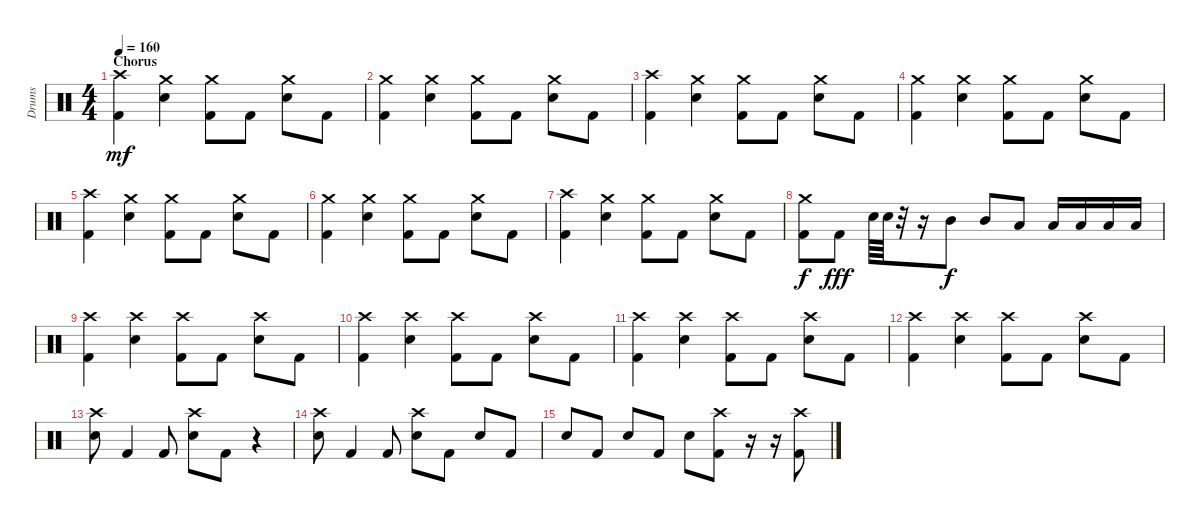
\track ("Drums" "Drums") {instrument percussion}
\staff {score}
\articulation defaults
\ts (4 4)
\section ("" "Chorus")
\tempo 160
\clef neutral
\ks c
("Crash high (hit)" "Kick (hit) 2").4{dy mf} ("Crash medium (hit)" "Electric Snare (hit)").4 ("Crash medium (hit)" "Kick (hit) 2").8 "Kick (hit) 2".8 ("Crash medium (hit)" "Electric Snare (hit)").8 "Kick (hit) 2".8 |
("Crash medium (hit)" "Kick (hit) 2").4 ("Crash medium (hit)" "Electric Snare (hit)").4 ("Crash medium (hit)" "Kick (hit) 2").8 "Kick (hit) 2".8 ("Crash medium (hit)" "Electric Snare (hit)").8 "Kick (hit) 2".8 |
("Crash high (hit)" "Kick (hit) 2").4 ("Crash medium (hit)" "Electric Snare (hit)").4 ("Crash medium (hit)" "Kick (hit) 2").8 "Kick (hit) 2".8 ("Crash medium (hit)" "Electric Snare (hit)").8 "Kick (hit) 2".8 |
("Crash medium (hit)" "Kick (hit) 2").4 ("Crash medium (hit)" "Electric Snare (hit)").4 ("Crash medium (hit)" "Kick (hit) 2").8 "Kick (hit) 2".8 ("Crash medium (hit)" "Electric Snare (hit)").8 "Kick (hit) 2".8 |
("Crash high (hit)" "Kick (hit) 2").4 ("Crash medium (hit)" "Electric Snare (hit)").4 ("Crash medium (hit)" "Kick (hit) 2").8 "Kick (hit) 2".8 ("Crash medium (hit)" "Electric Snare (hit)").8 "Kick (hit) 2".8 |
("Crash medium (hit)" "Kick (hit) 2").4 ("Crash medium (hit)" "Electric Snare (hit)").4 ("Crash medium (hit)" "Kick (hit) 2").8 "Kick (hit) 2".8 ("Crash medium (hit)" "Electric Snare (hit)").8 "Kick (hit) 2".8 |
("Crash high (hit)" "Kick (hit) 2").4 ("Crash medium (hit)" "Electric Snare (hit)").4 ("Crash medium (hit)" "Kick (hit) 2").8 "Kick (hit) 2".8 ("Crash medium (hit)" "Electric Snare (hit)").8 "Kick (hit) 2".8 |
("Crash medium (hit)" "Kick (hit) 2").8{dy f} "Kick (hit) 2".8{dy fff} "Electric Snare (hit)".64 "Electric Snare (hit)".64 r.32 r.16 "Mid Tom (hit)".8{dy f} "Mid Tom (hit)".8 "Low Tom (hit)".8 "Low Tom (hit)".16 "Low Tom (hit)".16 "Low Floor Tom (hit)".16 "Low Floor Tom (hit)".16 |
("Crash high (hit)" "Kick (hit) 2").4 ("Crash high (hit)" "Electric Snare (hit)").4 ("Crash high (hit)" "Kick (hit) 2").8 "Kick (hit) 2".8 ("Crash high (hit)" "Electric Snare (hit)").8 "Kick (hit) 2".8 |
("Crash high (hit)" "Kick (hit) 2").4 ("Crash high (hit)" "Electric Snare (hit)").4 ("Crash high (hit)" "Kick (hit) 2").8 "Kick (hit) 2".8 ("Crash high (hit)" "Electric Snare (hit)").8 "Kick (hit) 2".8 |
("Crash high (hit)" "Kick (hit) 2").4 ("Crash high (hit)" "Electric Snare (hit)").4 ("Crash high (hit)" "Kick (hit) 2").8 "Kick (hit) 2".8 ("Crash high (hit)" "Electric Snare (hit)").8 "Kick (hit) 2".8 |
("Crash high (hit)" "Kick (hit) 2").4 ("Crash high (hit)" "Electric Snare (hit)").4 ("Crash high (hit)" "Kick (hit) 2").8 "Kick (hit) 2".8 ("Crash high (hit)" "Electric Snare (hit)").8 "Kick (hit) 2".8 |
("Crash high (hit)" "Electric Snare (hit)").8 "Kick (hit) 2".4 "Kick (hit) 2".8 ("Crash high (hit)" "Electric Snare (hit)").8 "Kick (hit) 2".8 r.4 |
("Crash high (hit)" "Electric Snare (hit)").8 "Kick (hit) 2".4 "Kick (hit) 2".8 ("Crash high (hit)" "Electric Snare (hit)").8 "Kick (hit) 2".8 "Electric Snare (hit)".8 "Kick (hit) 2".8 |
"Electric Snare (hit)".8 "Kick (hit) 2".8 "Electric Snare (hit)".8 "Kick (hit) 2".8 "Electric Snare (hit)".8 ("Crash high (hit)" "Kick (hit) 2").8 r.16 r.16 ("Crash high (hit)" "Kick (hit) 2").8
